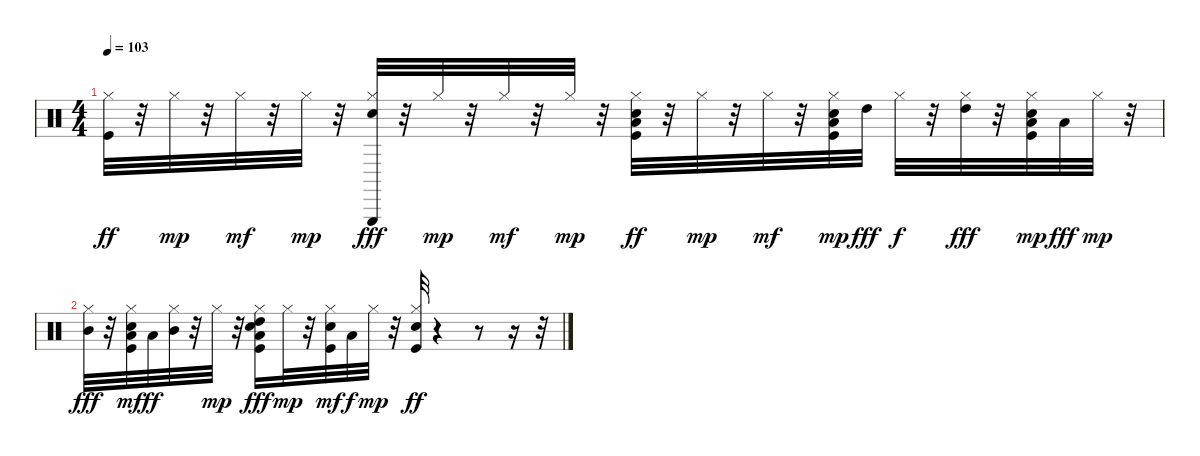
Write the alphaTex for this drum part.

\track "" {instrument percussion}
\staff {score}
\articulation defaults
\ts (4 4)
\tempo 103
\clef neutral
\ks c
("Kick (hit)" "Hi-Hat (closed)").32{dy ff} r.32 "Hi-Hat (closed)".32{dy mp} r.32 "Hi-Hat (closed)".32{dy mf} r.32 "Hi-Hat (closed)".32{dy mp} r.32 ("Snare (hit) 2" "Hi-Hat (closed)" "Triangle (hit)").32{dy fff} r.32 "Hi-Hat (closed)".32{dy mp} r.32 "Hi-Hat (closed)".32{dy mf} r.32 "Hi-Hat (closed)".32{dy mp} r.32 ("Kick (hit)" "Snare (hit) 2" "Hi-Hat (closed)" "Low Tom (hit)").32{dy ff} r.32 "Hi-Hat (closed)".32{dy mp} r.32 "Hi-Hat (closed)".32{dy mf} r.32 ("Kick (hit)" "Snare (hit) 2" "Hi-Hat (closed)" "Low Tom (hit)").32{dy mp} "High Tom (hit)".32{dy fff} "Hi-Hat (closed)".32{dy f} r.32 ("Hi-Hat (closed)" "High Tom (hit)").32{dy fff} r.32 ("Kick (hit)" "Snare (hit) 2" "Hi-Hat (closed)" "Low Tom (hit)").32{dy mp} "Low Tom (hit)".32{dy fff} "Hi-Hat (closed)".32{dy mp} r.32 |
("Hi-Hat (closed)" "Mid Tom (hit)").32{dy fff} r.32 ("Kick (hit)" "Snare (hit) 2" "Hi-Hat (closed)" "Low Tom (hit)").32{dy mf} "Low Tom (hit)".32{dy ff} ("Hi-Hat (closed)" "Mid Tom (hit)").32 r.32 "Hi-Hat (closed)".32{dy mp} r.32 ("Kick (hit)" "Snare (hit) 2" "Hi-Hat (closed)" "High Tom (hit)" "Low Floor Tom (hit)").16{dy fff} "Hi-Hat (closed)".32{dy mp} r.32 ("Kick (hit)" "Snare (hit) 2" "Hi-Hat (closed)").32{dy mf} "Low Floor Tom (hit)".32{dy f} "Hi-Hat (closed)".32{dy mp} r.32 ("Kick (hit)" "Electric Snare (hit)" "Hi-Hat (closed)").32{dy ff} r.4 r.8 r.16 r.32
